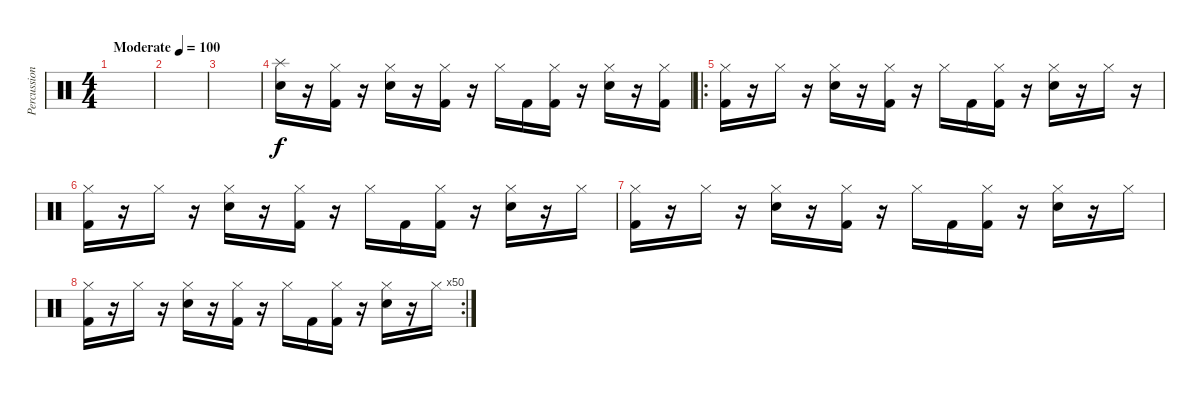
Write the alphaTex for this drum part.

\track ("Percussion" "Percussion") {instrument percussion}
\staff {score}
\articulation defaults
\ts (4 4)
\tempo (100 "Moderate")
\clef neutral
\ks c
|
|
|
("Splash (hit)" "Electric Snare (hit)").16 r.16 ("Hi-Hat (closed)" "Kick (hit) 2").16 r.16 ("Hi-Hat (closed)" "Electric Snare (hit)").16 r.16 ("Hi-Hat (closed)" "Kick (hit) 2").16 r.16 "Hi-Hat (closed)".16 "Kick (hit) 2".16 ("Hi-Hat (closed)" "Kick (hit) 2").16 r.16 ("Hi-Hat (closed)" "Electric Snare (hit)").16 r.16 ("Hi-Hat (closed)" "Kick (hit) 2").16 |
\ro
("Hi-Hat (closed)" "Kick (hit) 2").16 r.16 "Hi-Hat (closed)".16 r.16 ("Hi-Hat (closed)" "Electric Snare (hit)").16 r.16 ("Hi-Hat (closed)" "Kick (hit) 2").16 r.16 "Hi-Hat (closed)".16 "Kick (hit) 2".16 ("Hi-Hat (closed)" "Kick (hit) 2").16 r.16 ("Hi-Hat (closed)" "Electric Snare (hit)").16 r.16 "Hi-Hat (closed)".16 r.16 |
("Hi-Hat (closed)" "Kick (hit) 2").16 r.16 "Hi-Hat (closed)".16 r.16 ("Hi-Hat (closed)" "Electric Snare (hit)").16 r.16 ("Hi-Hat (closed)" "Kick (hit) 2").16 r.16 "Hi-Hat (closed)".16 "Kick (hit) 2".16 ("Hi-Hat (closed)" "Kick (hit) 2").16 r.16 ("Hi-Hat (closed)" "Electric Snare (hit)").16 r.16 "Hi-Hat (closed)".16 |
("Hi-Hat (closed)" "Kick (hit) 2").16 r.16 "Hi-Hat (closed)".16 r.16 ("Hi-Hat (closed)" "Electric Snare (hit)").16 r.16 ("Hi-Hat (closed)" "Kick (hit) 2").16 r.16 "Hi-Hat (closed)".16 "Kick (hit) 2".16 ("Hi-Hat (closed)" "Kick (hit) 2").16 r.16 ("Hi-Hat (closed)" "Electric Snare (hit)").16 r.16 "Hi-Hat (closed)".16 |
\rc 50
("Hi-Hat (closed)" "Kick (hit) 2").16 r.16 "Hi-Hat (closed)".16 r.16 ("Hi-Hat (closed)" "Electric Snare (hit)").16 r.16 ("Hi-Hat (closed)" "Kick (hit) 2").16 r.16 "Hi-Hat (closed)".16 "Kick (hit) 2".16 ("Hi-Hat (closed)" "Kick (hit) 2").16 r.16 ("Hi-Hat (closed)" "Electric Snare (hit)").16 r.16 "Hi-Hat (closed)".16
